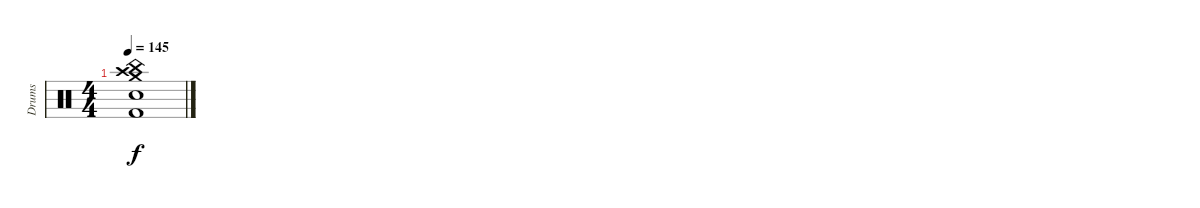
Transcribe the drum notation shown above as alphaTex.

\track ("Drums" "Drums") {instrument percussion}
\staff {score}
\articulation defaults
\ts (4 4)
\tempo 145
\clef neutral
\ks c
("Crash medium (hit)" "Crash high (hit)" "China (hit)" "Snare (hit) 2" "Kick (hit) 2").1{dy f}
